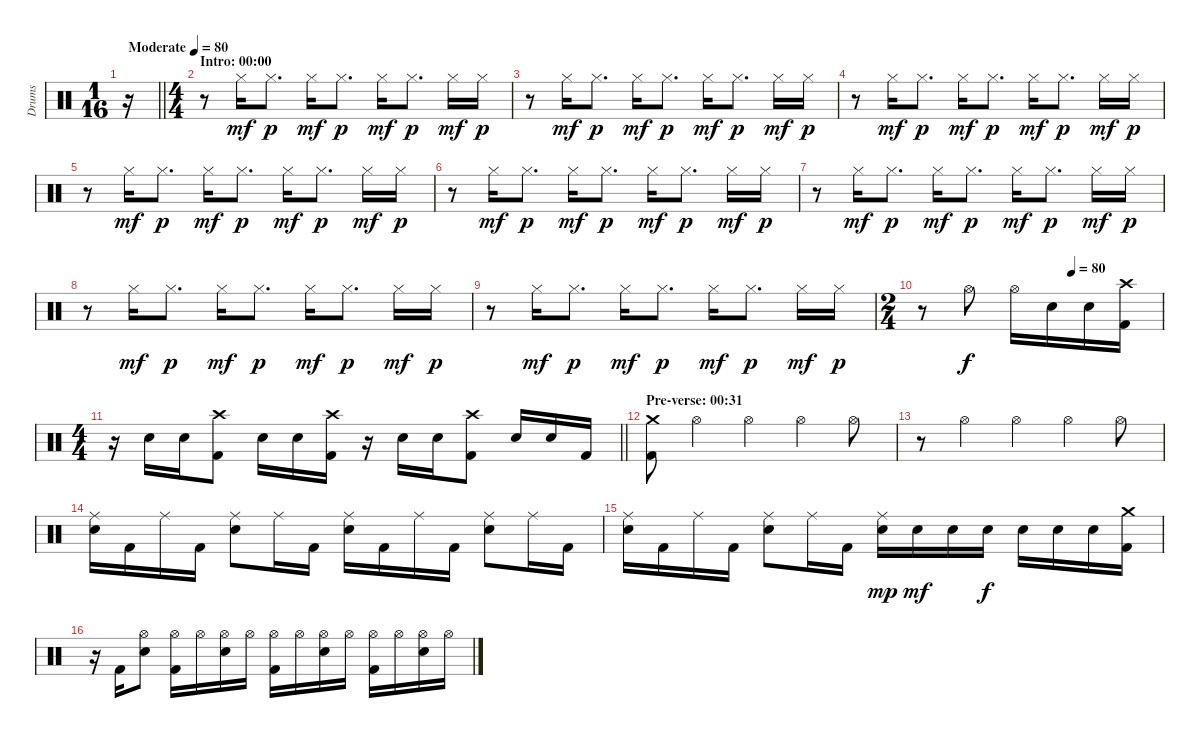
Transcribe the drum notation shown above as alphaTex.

\track ("Drums" "Drums") {instrument percussion}
\staff {score}
\articulation defaults
\ts (1 16)
\tempo (80 "Moderate")
\tempo 73
\tempo (80 "Moderate")
\clef neutral
\barLineRight lightlight
\ks c
r.16{dy mf} |
\ts (4 4)
\section ("" "Intro: 00:00")
r.8 "Hi-Hat (closed)".16 "Hi-Hat (closed)".8{d dy p} "Hi-Hat (closed)".16{dy mf} "Hi-Hat (closed)".8{d dy p} "Hi-Hat (closed)".16{dy mf} "Hi-Hat (closed)".8{d dy p} "Hi-Hat (closed)".16{dy mf} "Hi-Hat (closed)".16{dy p} |
r.8 "Hi-Hat (closed)".16{dy mf} "Hi-Hat (closed)".8{d dy p} "Hi-Hat (closed)".16{dy mf} "Hi-Hat (closed)".8{d dy p} "Hi-Hat (closed)".16{dy mf} "Hi-Hat (closed)".8{d dy p} "Hi-Hat (closed)".16{dy mf} "Hi-Hat (closed)".16{dy p} |
r.8 "Hi-Hat (closed)".16{dy mf} "Hi-Hat (closed)".8{d dy p} "Hi-Hat (closed)".16{dy mf} "Hi-Hat (closed)".8{d dy p} "Hi-Hat (closed)".16{dy mf} "Hi-Hat (closed)".8{d dy p} "Hi-Hat (closed)".16{dy mf} "Hi-Hat (closed)".16{dy p} |
r.8 "Hi-Hat (closed)".16{dy mf} "Hi-Hat (closed)".8{d dy p} "Hi-Hat (closed)".16{dy mf} "Hi-Hat (closed)".8{d dy p} "Hi-Hat (closed)".16{dy mf} "Hi-Hat (closed)".8{d dy p} "Hi-Hat (closed)".16{dy mf} "Hi-Hat (closed)".16{dy p} |
r.8 "Hi-Hat (closed)".16{dy mf} "Hi-Hat (closed)".8{d dy p} "Hi-Hat (closed)".16{dy mf} "Hi-Hat (closed)".8{d dy p} "Hi-Hat (closed)".16{dy mf} "Hi-Hat (closed)".8{d dy p} "Hi-Hat (closed)".16{dy mf} "Hi-Hat (closed)".16{dy p} |
r.8 "Hi-Hat (closed)".16{dy mf} "Hi-Hat (closed)".8{d dy p} "Hi-Hat (closed)".16{dy mf} "Hi-Hat (closed)".8{d dy p} "Hi-Hat (closed)".16{dy mf} "Hi-Hat (closed)".8{d dy p} "Hi-Hat (closed)".16{dy mf} "Hi-Hat (closed)".16{dy p} |
r.8 "Hi-Hat (closed)".16{dy mf} "Hi-Hat (closed)".8{d dy p} "Hi-Hat (closed)".16{dy mf} "Hi-Hat (closed)".8{d dy p} "Hi-Hat (closed)".16{dy mf} "Hi-Hat (closed)".8{d dy p} "Hi-Hat (closed)".16{dy mf} "Hi-Hat (closed)".16{dy p} |
r.8 "Hi-Hat (closed)".16{dy mf} "Hi-Hat (closed)".8{d dy p} "Hi-Hat (closed)".16{dy mf} "Hi-Hat (closed)".8{d dy p} "Hi-Hat (closed)".16{dy mf} "Hi-Hat (closed)".8{d dy p} "Hi-Hat (closed)".16{dy mf} "Hi-Hat (closed)".16{dy p} |
\ts (2 4)
\tempo (80 0.625)
r.8{volume 12} "Hi-Hat (open)".8{dy f} "Hi-Hat (open)".16 "Electric Snare (hit)".16 "Electric Snare (hit)".16 ("Crash high (hit)" "Kick (hit) 2").16 |
\ts (4 4)
\barLineRight lightlight
r.16 "Electric Snare (hit)".16 "Electric Snare (hit)".16 ("Crash high (hit)" "Kick (hit) 2").8 "Electric Snare (hit)".16 "Electric Snare (hit)".16 ("Crash high (hit)" "Kick (hit) 2").16 r.16 "Electric Snare (hit)".16 "Electric Snare (hit)".16 ("Crash high (hit)" "Kick (hit) 2").8 "Electric Snare (hit)".16 "Electric Snare (hit)".16 "Kick (hit) 2".16 |
\section ("" "Pre-verse: 00:31")
("Crash medium (hit)" "Kick (hit) 2").8 "Hi-Hat (open)".4 "Hi-Hat (open)".4 "Hi-Hat (open)".4 "Hi-Hat (open)".8 |
r.8 "Hi-Hat (open)".4 "Hi-Hat (open)".4 "Hi-Hat (open)".4 "Hi-Hat (open)".8 |
("Ride (middle)" "Electric Snare (hit)").16 "Kick (hit) 2".16 "Ride (middle)".16 "Kick (hit) 2".16 ("Ride (middle)" "Electric Snare (hit)").8 "Ride (middle)".16 "Kick (hit) 2".16 ("Ride (middle)" "Electric Snare (hit)").16 "Kick (hit) 2".16 "Ride (middle)".16 "Kick (hit) 2".16 ("Ride (middle)" "Electric Snare (hit)").8 "Ride (middle)".16 "Kick (hit) 2".16 |
("Ride (middle)" "Electric Snare (hit)").16 "Kick (hit) 2".16 "Ride (middle)".16 "Kick (hit) 2".16 ("Ride (middle)" "Electric Snare (hit)").8 "Ride (middle)".16 "Kick (hit) 2".16 ("Ride (middle)" "Electric Snare (hit)").16{dy mp} "Electric Snare (hit)".16{dy mf} "Electric Snare (hit)".16 "Electric Snare (hit)".16{dy f} "Electric Snare (hit)".16 "Electric Snare (hit)".16 "Electric Snare (hit)".16 ("Crash medium (hit)" "Kick (hit) 2").16 |
r.16 "Kick (hit) 2".16 ("Hi-Hat (open)" "Electric Snare (hit)").8 ("Hi-Hat (open)" "Kick (hit) 2").16 "Hi-Hat (open)".16 ("Hi-Hat (open)" "Electric Snare (hit)").16 "Hi-Hat (open)".16 ("Hi-Hat (open)" "Kick (hit) 2").16 "Hi-Hat (open)".16 ("Hi-Hat (open)" "Electric Snare (hit)").16 "Hi-Hat (open)".16 ("Hi-Hat (open)" "Kick (hit) 2").16 "Hi-Hat (open)".16 ("Hi-Hat (open)" "Electric Snare (hit)").16 "Hi-Hat (open)".16
